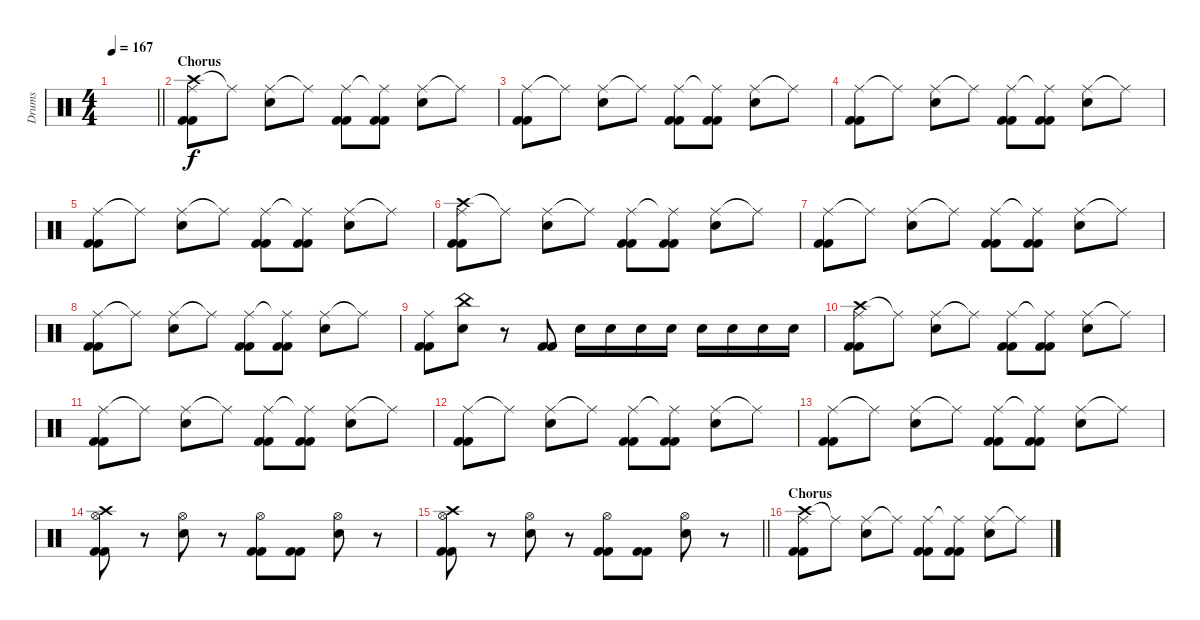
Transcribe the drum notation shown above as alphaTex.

\track ("Drums" "Drums") {instrument percussion}
\staff {score}
\articulation defaults
\ts (4 4)
\tempo 167
\clef neutral
\barLineRight lightlight
\ks c
|
\section ("" "Chorus")
("Crash high (hit)" "Ride (middle)" "Kick (hit) 2" "Kick (hit) 2").8 "Ride (middle)"{t}.8 ("Ride (middle)" "Electric Snare (hit)").8 "Ride (middle)"{t}.8 ("Ride (middle)" "Kick (hit) 2" "Kick (hit) 2").8 ("Ride (middle)"{t} "Kick (hit) 2" "Kick (hit) 2").8 ("Ride (middle)" "Electric Snare (hit)").8 "Ride (middle)"{t}.8 |
("Ride (middle)" "Kick (hit) 2" "Kick (hit) 2").8 "Ride (middle)"{t}.8 ("Ride (middle)" "Electric Snare (hit)").8 "Ride (middle)"{t}.8 ("Ride (middle)" "Kick (hit) 2" "Kick (hit) 2").8 ("Ride (middle)"{t} "Kick (hit) 2" "Kick (hit) 2").8 ("Ride (middle)" "Electric Snare (hit)").8 "Ride (middle)"{t}.8 |
("Ride (middle)" "Kick (hit) 2" "Kick (hit) 2").8 "Ride (middle)"{t}.8 ("Ride (middle)" "Electric Snare (hit)").8 "Ride (middle)"{t}.8 ("Ride (middle)" "Kick (hit) 2" "Kick (hit) 2").8 ("Ride (middle)"{t} "Kick (hit) 2" "Kick (hit) 2").8 ("Ride (middle)" "Electric Snare (hit)").8 "Ride (middle)"{t}.8 |
("Ride (middle)" "Kick (hit) 2" "Kick (hit) 2").8 "Ride (middle)"{t}.8 ("Ride (middle)" "Electric Snare (hit)").8 "Ride (middle)"{t}.8 ("Ride (middle)" "Kick (hit) 2" "Kick (hit) 2").8 ("Ride (middle)"{t} "Kick (hit) 2" "Kick (hit) 2").8 ("Ride (middle)" "Electric Snare (hit)").8 "Ride (middle)"{t}.8 |
("Crash high (hit)" "Ride (middle)" "Kick (hit) 2" "Kick (hit) 2").8 "Ride (middle)"{t}.8 ("Ride (middle)" "Electric Snare (hit)").8 "Ride (middle)"{t}.8 ("Ride (middle)" "Kick (hit) 2" "Kick (hit) 2").8 ("Ride (middle)"{t} "Kick (hit) 2" "Kick (hit) 2").8 ("Ride (middle)" "Electric Snare (hit)").8 "Ride (middle)"{t}.8 |
("Ride (middle)" "Kick (hit) 2" "Kick (hit) 2").8 "Ride (middle)"{t}.8 ("Ride (middle)" "Electric Snare (hit)").8 "Ride (middle)"{t}.8 ("Ride (middle)" "Kick (hit) 2" "Kick (hit) 2").8 ("Ride (middle)"{t} "Kick (hit) 2" "Kick (hit) 2").8 ("Ride (middle)" "Electric Snare (hit)").8 "Ride (middle)"{t}.8 |
("Ride (middle)" "Kick (hit) 2" "Kick (hit) 2").8 "Ride (middle)"{t}.8 ("Ride (middle)" "Electric Snare (hit)").8 "Ride (middle)"{t}.8 ("Ride (middle)" "Kick (hit) 2" "Kick (hit) 2").8 ("Ride (middle)"{t} "Kick (hit) 2" "Kick (hit) 2").8 ("Ride (middle)" "Electric Snare (hit)").8 "Ride (middle)"{t}.8 |
("Ride (middle)" "Kick (hit) 2" "Kick (hit) 2").8 ("China (hit)" "Electric Snare (hit)").8 r.8 ("Kick (hit) 2" "Kick (hit) 2").8 "Electric Snare (hit)".16 "Electric Snare (hit)".16 "Electric Snare (hit)".16 "Electric Snare (hit)".16 "Electric Snare (hit)".16 "Electric Snare (hit)".16 "Electric Snare (hit)".16 "Electric Snare (hit)".16 |
("Crash high (hit)" "Ride (middle)" "Kick (hit) 2" "Kick (hit) 2").8 "Ride (middle)"{t}.8 ("Ride (middle)" "Electric Snare (hit)").8 "Ride (middle)"{t}.8 ("Ride (middle)" "Kick (hit) 2" "Kick (hit) 2").8 ("Ride (middle)"{t} "Kick (hit) 2" "Kick (hit) 2").8 ("Ride (middle)" "Electric Snare (hit)").8 "Ride (middle)"{t}.8 |
("Ride (middle)" "Kick (hit) 2" "Kick (hit) 2").8 "Ride (middle)"{t}.8 ("Ride (middle)" "Electric Snare (hit)").8 "Ride (middle)"{t}.8 ("Ride (middle)" "Kick (hit) 2" "Kick (hit) 2").8 ("Ride (middle)"{t} "Kick (hit) 2" "Kick (hit) 2").8 ("Ride (middle)" "Electric Snare (hit)").8 "Ride (middle)"{t}.8 |
("Ride (middle)" "Kick (hit) 2" "Kick (hit) 2").8 "Ride (middle)"{t}.8 ("Ride (middle)" "Electric Snare (hit)").8 "Ride (middle)"{t}.8 ("Ride (middle)" "Kick (hit) 2" "Kick (hit) 2").8 ("Ride (middle)"{t} "Kick (hit) 2" "Kick (hit) 2").8 ("Ride (middle)" "Electric Snare (hit)").8 "Ride (middle)"{t}.8 |
("Ride (middle)" "Kick (hit) 2" "Kick (hit) 2").8 "Ride (middle)"{t}.8 ("Ride (middle)" "Electric Snare (hit)").8 "Ride (middle)"{t}.8 ("Ride (middle)" "Kick (hit) 2" "Kick (hit) 2").8 ("Ride (middle)"{t} "Kick (hit) 2" "Kick (hit) 2").8 ("Ride (middle)" "Electric Snare (hit)").8 "Ride (middle)"{t}.8 |
("Crash high (hit)" "Hi-Hat (open)" "Kick (hit) 2" "Kick (hit) 2").8 r.8 ("Hi-Hat (open)" "Electric Snare (hit)").8 r.8 ("Hi-Hat (open)" "Kick (hit) 2" "Kick (hit) 2").8 ("Kick (hit) 2" "Kick (hit) 2").8 ("Hi-Hat (open)" "Electric Snare (hit)").8 r.8 |
\barLineRight lightlight
("Crash high (hit)" "Hi-Hat (open)" "Kick (hit) 2" "Kick (hit) 2").8 r.8 ("Hi-Hat (open)" "Electric Snare (hit)").8 r.8 ("Hi-Hat (open)" "Kick (hit) 2" "Kick (hit) 2").8 ("Kick (hit) 2" "Kick (hit) 2").8 ("Hi-Hat (open)" "Electric Snare (hit)").8 r.8 |
\section ("" "Chorus")
("Crash high (hit)" "Ride (middle)" "Kick (hit) 2" "Kick (hit) 2").8 "Ride (middle)"{t}.8 ("Ride (middle)" "Electric Snare (hit)").8 "Ride (middle)"{t}.8 ("Ride (middle)" "Kick (hit) 2" "Kick (hit) 2").8 ("Ride (middle)"{t} "Kick (hit) 2" "Kick (hit) 2").8 ("Ride (middle)" "Electric Snare (hit)").8 "Ride (middle)"{t}.8
